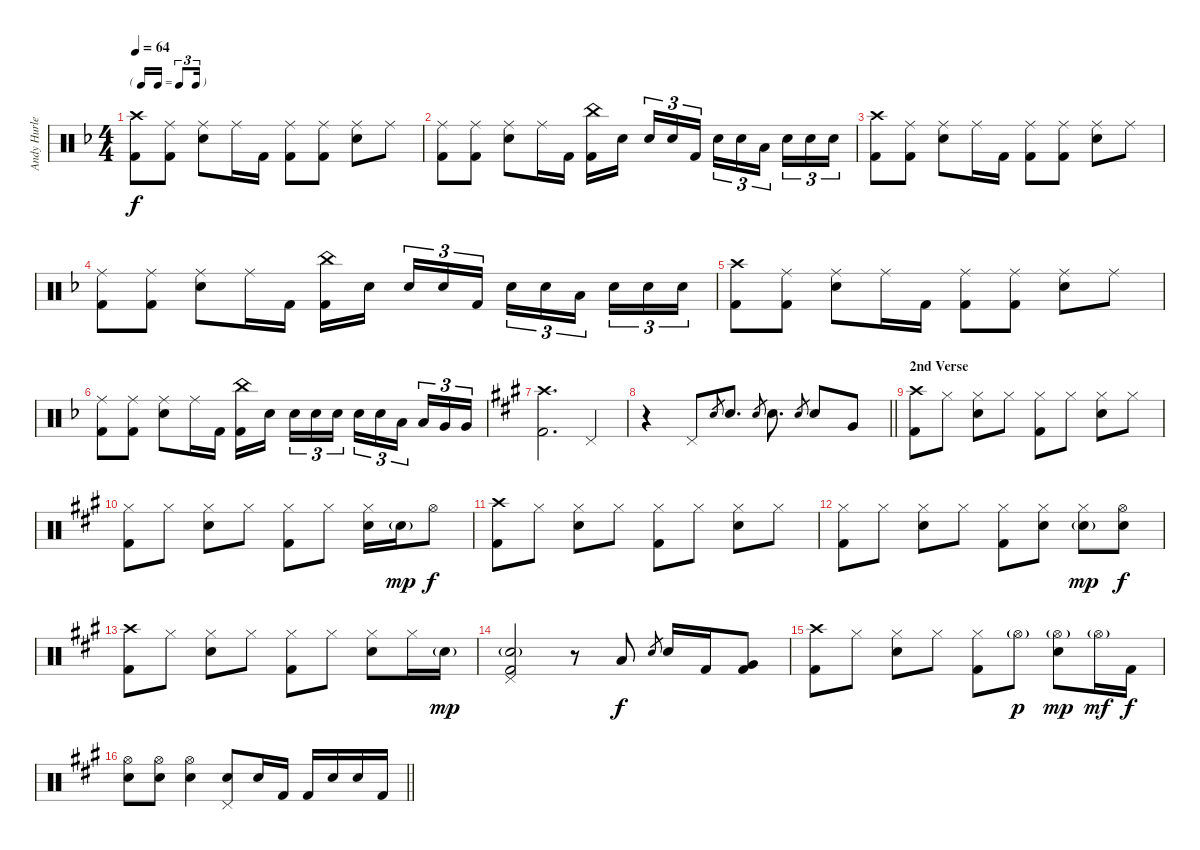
\track ("Andy Hurley" "Andy Hurle") {instrument percussion}
\staff {score}
\articulation defaults
\ts (4 4)
\tf triplet16th
\tempo 64
\clef neutral
\ks f
("Crash high (hit)" "Kick (hit) 2").8{dy f} ("Ride (middle)" "Kick (hit) 2").8 ("Ride (middle)" "Snare (hit) 2").8 "Ride (middle)".16 "Kick (hit) 2".16 ("Ride (middle)" "Kick (hit) 2").8 ("Ride (middle)" "Kick (hit) 2").8 ("Ride (middle)" "Snare (hit) 2").8 "Ride (middle)".8 |
("Ride (middle)" "Kick (hit) 2").8 ("Ride (middle)" "Kick (hit) 2").8 ("Ride (middle)" "Snare (hit) 2").8 "Ride (middle)".16 "Kick (hit) 2".16 ("China (hit)" "Kick (hit) 2").16 "Snare (hit) 2".16{beam splitsecondary} "Snare (hit) 2".16{tu (3 2)} "Snare (hit) 2".16{tu (3 2)} "Kick (hit) 2".16{tu (3 2)} "Snare (hit) 2".16{tu (3 2)} "Snare (hit) 2".16{tu (3 2)} "Low Tom (hit)".16{tu (3 2) beam splitsecondary} "Snare (hit) 2".16{tu (3 2)} "Snare (hit) 2".16{tu (3 2)} "Snare (hit) 2".16{tu (3 2)} |
("Crash high (hit)" "Kick (hit) 2").8 ("Ride (middle)" "Kick (hit) 2").8 ("Ride (middle)" "Snare (hit) 2").8 "Ride (middle)".16 "Kick (hit) 2".16 ("Ride (middle)" "Kick (hit) 2").8 ("Ride (middle)" "Kick (hit) 2").8 ("Ride (middle)" "Snare (hit) 2").8 "Ride (middle)".8 |
("Ride (middle)" "Kick (hit) 2").8 ("Ride (middle)" "Kick (hit) 2").8 ("Ride (middle)" "Snare (hit) 2").8 "Ride (middle)".16 "Kick (hit) 2".16 ("China (hit)" "Kick (hit) 2").16 "Snare (hit) 2".16{beam splitsecondary} "Snare (hit) 2".16{tu (3 2)} "Snare (hit) 2".16{tu (3 2)} "Kick (hit) 2".16{tu (3 2)} "Snare (hit) 2".16{tu (3 2)} "Snare (hit) 2".16{tu (3 2)} "Low Tom (hit)".16{tu (3 2) beam splitsecondary} "Snare (hit) 2".16{tu (3 2)} "Snare (hit) 2".16{tu (3 2)} "Snare (hit) 2".16{tu (3 2)} |
("Crash high (hit)" "Kick (hit) 2").8 ("Ride (middle)" "Kick (hit) 2").8 ("Ride (middle)" "Snare (hit) 2").8 "Ride (middle)".16 "Kick (hit) 2".16 ("Ride (middle)" "Kick (hit) 2").8 ("Ride (middle)" "Kick (hit) 2").8 ("Ride (middle)" "Snare (hit) 2").8 "Ride (middle)".8 |
("Ride (middle)" "Kick (hit) 2").8 ("Ride (middle)" "Kick (hit) 2").8 ("Ride (middle)" "Snare (hit) 2").8 "Ride (middle)".16 "Kick (hit) 2".16 ("China (hit)" "Kick (hit) 2").16 "Snare (hit) 2".16{beam splitsecondary} "Snare (hit) 2".16{tu (3 2)} "Snare (hit) 2".16{tu (3 2)} "Snare (hit) 2".16{tu (3 2)} "Snare (hit) 2".16{tu (3 2)} "Snare (hit) 2".16{tu (3 2)} "Low Tom (hit)".16{tu (3 2) beam splitsecondary} "Low Tom (hit)".16{tu (3 2)} "Very Low Tom (hit)".16{tu (3 2)} "Very Low Tom (hit)".16{tu (3 2)} |
\ks a
("Crash high (hit)" "Kick (hit) 2").2{d} "Pedal Hi-Hat (hit)".4 |
\barLineRight lightlight
r.4 "Pedal Hi-Hat (hit)".8 "Snare (hit) 2".8{gr} "Snare (hit) 2".8{d} "Snare (hit) 2".8{gr} "Snare (hit) 2".8{d} "Snare (hit) 2".8{gr} "Snare (hit) 2".8 "Very Low Tom (hit)".8 |
\section ("" "2nd Verse")
("Crash high (hit)" "Kick (hit) 2").8 "Hi-Hat (closed)".8 ("Hi-Hat (closed)" "Snare (hit) 2").8 "Hi-Hat (closed)".8 ("Hi-Hat (closed)" "Kick (hit) 2").8 "Hi-Hat (closed)".8 ("Hi-Hat (closed)" "Snare (hit) 2").8 "Hi-Hat (closed)".8 |
("Hi-Hat (closed)" "Kick (hit) 2").8 "Hi-Hat (closed)".8 ("Hi-Hat (closed)" "Snare (hit) 2").8 "Hi-Hat (closed)".8 ("Hi-Hat (closed)" "Kick (hit) 2").8 "Hi-Hat (closed)".8 ("Hi-Hat (closed)" "Snare (hit) 2").16 "Snare (hit) 2"{g}.16{dy mp} "Hi-Hat (open)".8{dy f} |
("Crash high (hit)" "Kick (hit) 2").8 "Hi-Hat (closed)".8 ("Hi-Hat (closed)" "Snare (hit) 2").8 "Hi-Hat (closed)".8 ("Hi-Hat (closed)" "Kick (hit) 2").8 "Hi-Hat (closed)".8 ("Hi-Hat (closed)" "Snare (hit) 2").8 "Hi-Hat (closed)".8 |
("Hi-Hat (closed)" "Kick (hit) 2").8 "Hi-Hat (closed)".8 ("Hi-Hat (closed)" "Snare (hit) 2").8 "Hi-Hat (closed)".8 ("Hi-Hat (closed)" "Kick (hit) 2").8 ("Hi-Hat (closed)" "Snare (hit) 2").8 ("Hi-Hat (closed)" "Snare (hit) 2"{g}).8{dy mp} ("Hi-Hat (open)" "Snare (hit) 2").8{dy f} |
("Crash high (hit)" "Kick (hit) 2").8 "Hi-Hat (closed)".8 ("Hi-Hat (closed)" "Snare (hit) 2").8 "Hi-Hat (closed)".8 ("Hi-Hat (closed)" "Kick (hit) 2").8 "Hi-Hat (closed)".8 ("Hi-Hat (closed)" "Snare (hit) 2").8 "Hi-Hat (closed)".16 "Snare (hit) 2"{g}.16{dy mp} |
("Pedal Hi-Hat (hit)" "Snare (hit) 2"{g} "Kick (hit) 2").2 r.8 "Low Tom (hit)".8{dy f} "Snare (hit) 2".8{gr} "Snare (hit) 2".16 "Kick (hit) 2".16 ("Very Low Tom (hit)" "Kick (hit) 2").8 |
("Crash high (hit)" "Kick (hit) 2").8 "Hi-Hat (closed)".8 ("Hi-Hat (closed)" "Snare (hit) 2").8 "Hi-Hat (closed)".8 ("Hi-Hat (closed)" "Kick (hit) 2").8 "Hi-Hat (open)"{g}.8{dy p} ("Hi-Hat (open)"{g} "Snare (hit) 2").8{dy mp} "Hi-Hat (open)"{g}.16{dy mf} "Kick (hit) 2".16{dy f} |
\barLineRight lightlight
("Hi-Hat (open)" "Snare (hit) 2").8 ("Hi-Hat (open)" "Snare (hit) 2").8 ("Hi-Hat (open)" "Snare (hit) 2").4 ("Pedal Hi-Hat (hit)" "Snare (hit) 2").8 "Snare (hit) 2".16 "Kick (hit) 2".16 "Kick (hit) 2".16 "Snare (hit) 2".16 "Snare (hit) 2".16 "Kick (hit) 2".16
